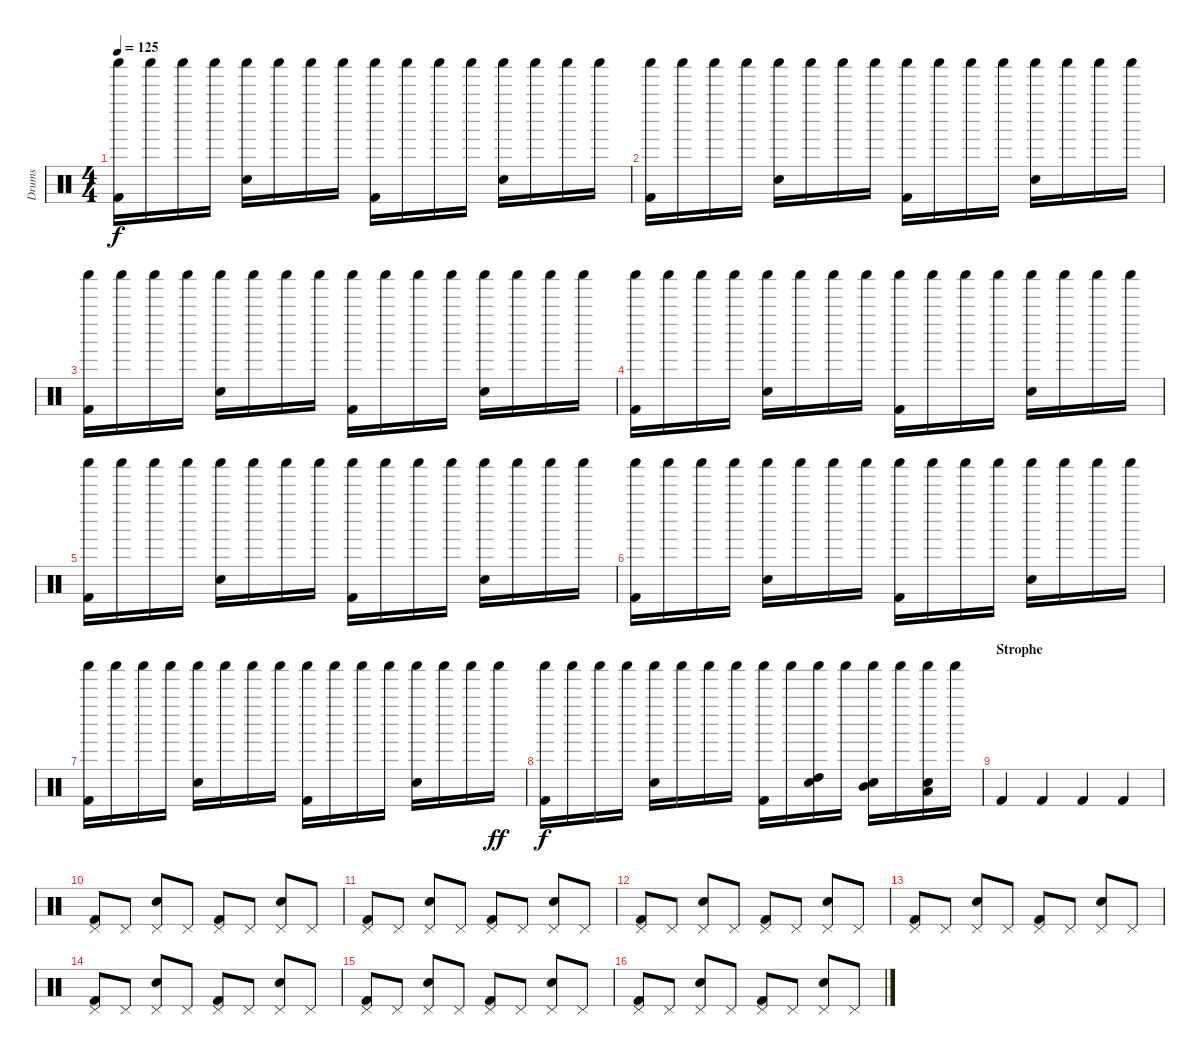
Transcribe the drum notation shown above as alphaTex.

\track ("Drums" "Drums") {instrument percussion}
\staff {score}
\articulation defaults
\ts (4 4)
\tempo 125
\clef neutral
\ks c
("Shaker (hit)" "Kick (hit) 2").16{dy f} "Shaker (hit)".16 "Shaker (hit)".16 "Shaker (hit)".16 ("Shaker (hit)" "Snare (hit) 2").16 "Shaker (hit)".16 "Shaker (hit)".16 "Shaker (hit)".16 ("Shaker (hit)" "Kick (hit) 2").16 "Shaker (hit)".16 "Shaker (hit)".16 "Shaker (hit)".16 ("Shaker (hit)" "Snare (hit) 2").16 "Shaker (hit)".16 "Shaker (hit)".16 "Shaker (hit)".16 |
("Shaker (hit)" "Kick (hit) 2").16 "Shaker (hit)".16 "Shaker (hit)".16 "Shaker (hit)".16 ("Shaker (hit)" "Snare (hit) 2").16 "Shaker (hit)".16 "Shaker (hit)".16 "Shaker (hit)".16 ("Shaker (hit)" "Kick (hit) 2").16 "Shaker (hit)".16 "Shaker (hit)".16 "Shaker (hit)".16 ("Shaker (hit)" "Snare (hit) 2").16 "Shaker (hit)".16 "Shaker (hit)".16 "Shaker (hit)".16 |
("Shaker (hit)" "Kick (hit) 2").16 "Shaker (hit)".16 "Shaker (hit)".16 "Shaker (hit)".16 ("Shaker (hit)" "Snare (hit) 2").16 "Shaker (hit)".16 "Shaker (hit)".16 "Shaker (hit)".16 ("Shaker (hit)" "Kick (hit) 2").16 "Shaker (hit)".16 "Shaker (hit)".16 "Shaker (hit)".16 ("Shaker (hit)" "Snare (hit) 2").16 "Shaker (hit)".16 "Shaker (hit)".16 "Shaker (hit)".16 |
("Shaker (hit)" "Kick (hit) 2").16 "Shaker (hit)".16 "Shaker (hit)".16 "Shaker (hit)".16 ("Shaker (hit)" "Snare (hit) 2").16 "Shaker (hit)".16 "Shaker (hit)".16 "Shaker (hit)".16 ("Shaker (hit)" "Kick (hit) 2").16 "Shaker (hit)".16 "Shaker (hit)".16 "Shaker (hit)".16 ("Shaker (hit)" "Snare (hit) 2").16 "Shaker (hit)".16 "Shaker (hit)".16 "Shaker (hit)".16 |
("Shaker (hit)" "Kick (hit) 2").16 "Shaker (hit)".16 "Shaker (hit)".16 "Shaker (hit)".16 ("Shaker (hit)" "Snare (hit) 2").16 "Shaker (hit)".16 "Shaker (hit)".16 "Shaker (hit)".16 ("Shaker (hit)" "Kick (hit) 2").16 "Shaker (hit)".16 "Shaker (hit)".16 "Shaker (hit)".16 ("Shaker (hit)" "Snare (hit) 2").16 "Shaker (hit)".16 "Shaker (hit)".16 "Shaker (hit)".16 |
("Shaker (hit)" "Kick (hit) 2").16 "Shaker (hit)".16 "Shaker (hit)".16 "Shaker (hit)".16 ("Shaker (hit)" "Snare (hit) 2").16 "Shaker (hit)".16 "Shaker (hit)".16 "Shaker (hit)".16 ("Shaker (hit)" "Kick (hit) 2").16 "Shaker (hit)".16 "Shaker (hit)".16 "Shaker (hit)".16 ("Shaker (hit)" "Snare (hit) 2").16 "Shaker (hit)".16 "Shaker (hit)".16 "Shaker (hit)".16 |
("Shaker (hit)" "Kick (hit) 2").16 "Shaker (hit)".16 "Shaker (hit)".16 "Shaker (hit)".16 ("Shaker (hit)" "Snare (hit) 2").16 "Shaker (hit)".16 "Shaker (hit)".16 "Shaker (hit)".16 ("Shaker (hit)" "Kick (hit) 2").16 "Shaker (hit)".16 "Shaker (hit)".16 "Shaker (hit)".16 ("Shaker (hit)" "Snare (hit) 2").16 "Shaker (hit)".16 "Shaker (hit)".16 "Shaker (hit)".16{dy ff} |
("Shaker (hit)" "Kick (hit) 2").16{dy f} "Shaker (hit)".16 "Shaker (hit)".16 "Shaker (hit)".16 ("Shaker (hit)" "Snare (hit) 2").16 "Shaker (hit)".16 "Shaker (hit)".16 "Shaker (hit)".16 ("Shaker (hit)" "Kick (hit) 2").16 "Shaker (hit)".16 ("Shaker (hit)" "High Tom (hit)" "Snare (hit) 2").16 "Shaker (hit)".16 ("Shaker (hit)" "Mid Tom (hit)" "Snare (hit) 2").16 "Shaker (hit)".16 ("Shaker (hit)" "Low Tom (hit)" "Snare (hit) 2").16 "Shaker (hit)".16 |
\section ("" "Strophe")
"Kick (hit) 2".4 "Kick (hit) 2".4 "Kick (hit) 2".4 "Kick (hit) 2".4 |
("Pedal Hi-Hat (hit)" "Kick (hit) 2").8 "Pedal Hi-Hat (hit)".8 ("Pedal Hi-Hat (hit)" "Snare (hit) 2").8 "Pedal Hi-Hat (hit)".8 ("Pedal Hi-Hat (hit)" "Kick (hit) 2").8 "Pedal Hi-Hat (hit)".8 ("Pedal Hi-Hat (hit)" "Snare (hit) 2").8 "Pedal Hi-Hat (hit)".8 |
("Pedal Hi-Hat (hit)" "Kick (hit) 2").8 "Pedal Hi-Hat (hit)".8 ("Pedal Hi-Hat (hit)" "Snare (hit) 2").8 "Pedal Hi-Hat (hit)".8 ("Pedal Hi-Hat (hit)" "Kick (hit) 2").8 "Pedal Hi-Hat (hit)".8 ("Pedal Hi-Hat (hit)" "Snare (hit) 2").8 "Pedal Hi-Hat (hit)".8 |
("Pedal Hi-Hat (hit)" "Kick (hit) 2").8 "Pedal Hi-Hat (hit)".8 ("Pedal Hi-Hat (hit)" "Snare (hit) 2").8 "Pedal Hi-Hat (hit)".8 ("Pedal Hi-Hat (hit)" "Kick (hit) 2").8 "Pedal Hi-Hat (hit)".8 ("Pedal Hi-Hat (hit)" "Snare (hit) 2").8 "Pedal Hi-Hat (hit)".8 |
("Pedal Hi-Hat (hit)" "Kick (hit) 2").8 "Pedal Hi-Hat (hit)".8 ("Pedal Hi-Hat (hit)" "Snare (hit) 2").8 "Pedal Hi-Hat (hit)".8 ("Pedal Hi-Hat (hit)" "Kick (hit) 2").8 "Pedal Hi-Hat (hit)".8 ("Pedal Hi-Hat (hit)" "Snare (hit) 2").8 "Pedal Hi-Hat (hit)".8 |
("Pedal Hi-Hat (hit)" "Kick (hit) 2").8 "Pedal Hi-Hat (hit)".8 ("Pedal Hi-Hat (hit)" "Snare (hit) 2").8 "Pedal Hi-Hat (hit)".8 ("Pedal Hi-Hat (hit)" "Kick (hit) 2").8 "Pedal Hi-Hat (hit)".8 ("Pedal Hi-Hat (hit)" "Snare (hit) 2").8 "Pedal Hi-Hat (hit)".8 |
("Pedal Hi-Hat (hit)" "Kick (hit) 2").8 "Pedal Hi-Hat (hit)".8 ("Pedal Hi-Hat (hit)" "Snare (hit) 2").8 "Pedal Hi-Hat (hit)".8 ("Pedal Hi-Hat (hit)" "Kick (hit) 2").8 "Pedal Hi-Hat (hit)".8 ("Pedal Hi-Hat (hit)" "Snare (hit) 2").8 "Pedal Hi-Hat (hit)".8 |
("Pedal Hi-Hat (hit)" "Kick (hit) 2").8 "Pedal Hi-Hat (hit)".8 ("Pedal Hi-Hat (hit)" "Snare (hit) 2").8 "Pedal Hi-Hat (hit)".8 ("Pedal Hi-Hat (hit)" "Kick (hit) 2").8 "Pedal Hi-Hat (hit)".8 ("Pedal Hi-Hat (hit)" "Snare (hit) 2").8 "Pedal Hi-Hat (hit)".8
